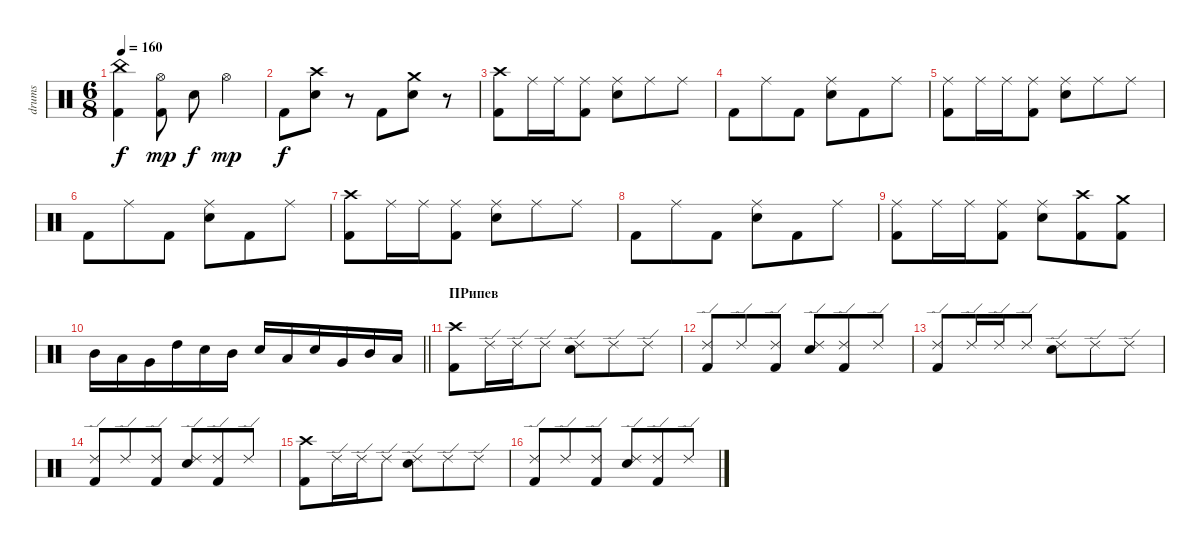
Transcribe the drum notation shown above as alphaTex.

\track ("drums" "drums") {instrument percussion}
\staff {score}
\articulation defaults
\ts (6 8)
\tempo 160
\clef neutral
\ks c
("Kick (hit) 2" "China (hit)").4{dy f} ("Kick (hit) 2" "Hi-Hat (open)").8{dy mp} "Electric Snare (hit)".8{dy f} "Hi-Hat (open)".4{dy mp} |
"Kick (hit) 2".8{dy f} ("Crash high (hit)" "Electric Snare (hit)").8 r.8 "Kick (hit) 2".8 ("Crash medium (hit)" "Electric Snare (hit)").8 r.8 |
("Kick (hit) 2" "Crash high (hit)").8 "Ride (middle)".16 "Ride (middle)".16 ("Kick (hit) 2" "Ride (middle)").8 ("Electric Snare (hit)" "Ride (middle)").8 "Ride (middle)".8 "Ride (middle)".8 |
"Kick (hit) 2".8 "Ride (middle)".8 "Kick (hit) 2".8 ("Electric Snare (hit)" "Ride (middle)").8 "Kick (hit) 2".8 "Ride (middle)".8 |
("Ride (middle)" "Kick (hit) 2").8 "Ride (middle)".16 "Ride (middle)".16 ("Kick (hit) 2" "Ride (middle)").8 ("Electric Snare (hit)" "Ride (middle)").8 "Ride (middle)".8 "Ride (middle)".8 |
"Kick (hit) 2".8 "Ride (middle)".8 "Kick (hit) 2".8 ("Electric Snare (hit)" "Ride (middle)").8 "Kick (hit) 2".8 "Ride (middle)".8 |
("Kick (hit) 2" "Crash high (hit)").8 "Ride (middle)".16 "Ride (middle)".16 ("Kick (hit) 2" "Ride (middle)").8 ("Electric Snare (hit)" "Ride (middle)").8 "Ride (middle)".8 "Ride (middle)".8 |
"Kick (hit) 2".8 "Ride (middle)".8 "Kick (hit) 2".8 ("Electric Snare (hit)" "Ride (middle)").8 "Kick (hit) 2".8 "Ride (middle)".8 |
("Ride (middle)" "Kick (hit) 2").8 "Ride (middle)".16 "Ride (middle)".16 ("Kick (hit) 2" "Ride (middle)").8 ("Electric Snare (hit)" "Ride (middle)").8 ("Kick (hit) 2" "Crash high (hit)").8 ("Kick (hit) 2" "Crash medium (hit)").8 |
\barLineRight lightlight "Mid Tom (hit)".16 "Low Tom (hit)".16 "Very Low Tom (hit)".16 "High Tom (hit)".16 "Electric Snare (hit)".16 "Mid Tom (hit)".16 "Electric Snare (hit)".16 "Low Tom (hit)".16 "Electric Snare (hit)".16 "Very Low Tom (hit)".16 "Mid Tom (hit)".16 "Low Tom (hit)".16
|
\section ("" "ПРипев")
("Kick (hit) 2" "Crash high (hit)").8 "Ride (edge) 2".16 "Ride (edge) 2".16 "Ride (edge) 2".8 ("Electric Snare (hit)" "Ride (edge) 2").8 "Ride (edge) 2".8 "Ride (edge) 2".8 |
("Kick (hit) 2" "Ride (edge) 2").8 "Ride (edge) 2".8 ("Kick (hit) 2" "Ride (edge) 2").8 ("Electric Snare (hit)" "Ride (edge) 2").8 ("Kick (hit) 2" "Ride (edge) 2").8 "Ride (edge) 2".8 |
("Ride (edge) 2" "Kick (hit) 2").8 "Ride (edge) 2".16 "Ride (edge) 2".16 "Ride (edge) 2".8 ("Electric Snare (hit)" "Ride (edge) 2").8 "Ride (edge) 2".8 "Ride (edge) 2".8 |
("Kick (hit) 2" "Ride (edge) 2").8 "Ride (edge) 2".8 ("Kick (hit) 2" "Ride (edge) 2").8 ("Electric Snare (hit)" "Ride (edge) 2").8 ("Kick (hit) 2" "Ride (edge) 2").8 "Ride (edge) 2".8 |
("Kick (hit) 2" "Crash high (hit)").8 "Ride (edge) 2".16 "Ride (edge) 2".16 "Ride (edge) 2".8 ("Electric Snare (hit)" "Ride (edge) 2").8 "Ride (edge) 2".8 "Ride (edge) 2".8 |
("Kick (hit) 2" "Ride (edge) 2").8 "Ride (edge) 2".8 ("Kick (hit) 2" "Ride (edge) 2").8 ("Electric Snare (hit)" "Ride (edge) 2").8 ("Kick (hit) 2" "Ride (edge) 2").8 "Ride (edge) 2".8
